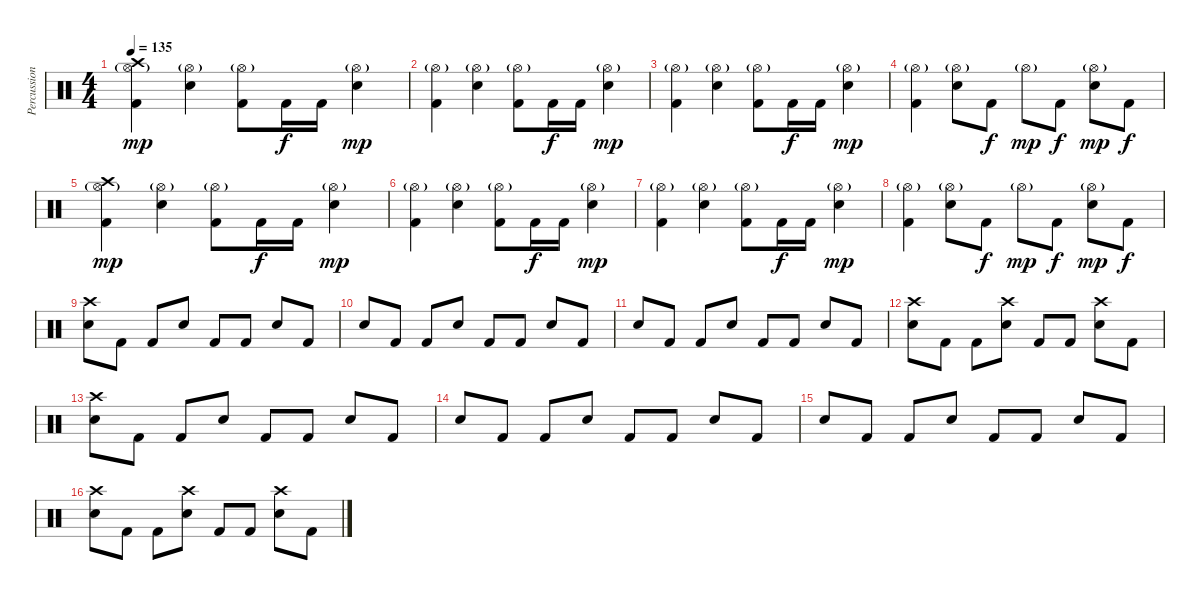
\track ("Percussion" "Percussion") {instrument percussion}
\staff {score}
\articulation defaults
\ts (4 4)
\tempo 135
\clef neutral
\ks c
("Hi-Hat (open)"{g} "Crash high (hit)" "Kick (hit) 2").4{dy mp} ("Hi-Hat (open)"{g} "Snare (hit) 2").4 ("Hi-Hat (open)"{g} "Kick (hit) 2").8 "Kick (hit) 2".16{dy f} "Kick (hit) 2".16 ("Hi-Hat (open)"{g} "Snare (hit) 2").4{dy mp} |
("Hi-Hat (open)"{g} "Kick (hit) 2").4 ("Hi-Hat (open)"{g} "Snare (hit) 2").4 ("Hi-Hat (open)"{g} "Kick (hit) 2").8 "Kick (hit) 2".16{dy f} "Kick (hit) 2".16 ("Hi-Hat (open)"{g} "Snare (hit) 2").4{dy mp} |
("Hi-Hat (open)"{g} "Kick (hit) 2").4 ("Hi-Hat (open)"{g} "Snare (hit) 2").4 ("Hi-Hat (open)"{g} "Kick (hit) 2").8 "Kick (hit) 2".16{dy f} "Kick (hit) 2".16 ("Hi-Hat (open)"{g} "Snare (hit) 2").4{dy mp} |
("Hi-Hat (open)"{g} "Kick (hit) 2").4 ("Hi-Hat (open)"{g} "Snare (hit) 2").8 "Kick (hit) 2".8{dy f} "Hi-Hat (open)"{g}.8{dy mp} "Kick (hit) 2".8{dy f} ("Hi-Hat (open)"{g} "Snare (hit) 2").8{dy mp} "Kick (hit) 2".8{dy f} |
("Hi-Hat (open)"{g} "Crash high (hit)" "Kick (hit) 2").4{dy mp} ("Hi-Hat (open)"{g} "Snare (hit) 2").4 ("Hi-Hat (open)"{g} "Kick (hit) 2").8 "Kick (hit) 2".16{dy f} "Kick (hit) 2".16 ("Hi-Hat (open)"{g} "Snare (hit) 2").4{dy mp} |
("Hi-Hat (open)"{g} "Kick (hit) 2").4 ("Hi-Hat (open)"{g} "Snare (hit) 2").4 ("Hi-Hat (open)"{g} "Kick (hit) 2").8 "Kick (hit) 2".16{dy f} "Kick (hit) 2".16 ("Hi-Hat (open)"{g} "Snare (hit) 2").4{dy mp} |
("Hi-Hat (open)"{g} "Kick (hit) 2").4 ("Hi-Hat (open)"{g} "Snare (hit) 2").4 ("Hi-Hat (open)"{g} "Kick (hit) 2").8 "Kick (hit) 2".16{dy f} "Kick (hit) 2".16 ("Hi-Hat (open)"{g} "Snare (hit) 2").4{dy mp} |
("Hi-Hat (open)"{g} "Kick (hit) 2").4 ("Hi-Hat (open)"{g} "Snare (hit) 2").8 "Kick (hit) 2".8{dy f} "Hi-Hat (open)"{g}.8{dy mp} "Kick (hit) 2".8{dy f} ("Hi-Hat (open)"{g} "Snare (hit) 2").8{dy mp} "Kick (hit) 2".8{dy f} |
("Crash high (hit)" "Snare (hit) 2").8 "Kick (hit) 2".8 "Kick (hit) 2".8 "Snare (hit) 2".8 "Kick (hit) 2".8 "Kick (hit) 2".8 "Snare (hit) 2".8 "Kick (hit) 2".8 |
"Snare (hit) 2".8 "Kick (hit) 2".8 "Kick (hit) 2".8 "Snare (hit) 2".8 "Kick (hit) 2".8 "Kick (hit) 2".8 "Snare (hit) 2".8 "Kick (hit) 2".8 |
"Snare (hit) 2".8 "Kick (hit) 2".8 "Kick (hit) 2".8 "Snare (hit) 2".8 "Kick (hit) 2".8 "Kick (hit) 2".8 "Snare (hit) 2".8 "Kick (hit) 2".8 |
("Crash high (hit)" "Snare (hit) 2").8 "Kick (hit) 2".8 "Kick (hit) 2".8 ("Crash high (hit)" "Snare (hit) 2").8 "Kick (hit) 2".8 "Kick (hit) 2".8 ("Crash high (hit)" "Snare (hit) 2").8 "Kick (hit) 2".8 |
("Crash high (hit)" "Snare (hit) 2").8 "Kick (hit) 2".8 "Kick (hit) 2".8 "Snare (hit) 2".8 "Kick (hit) 2".8 "Kick (hit) 2".8 "Snare (hit) 2".8 "Kick (hit) 2".8 |
"Snare (hit) 2".8 "Kick (hit) 2".8 "Kick (hit) 2".8 "Snare (hit) 2".8 "Kick (hit) 2".8 "Kick (hit) 2".8 "Snare (hit) 2".8 "Kick (hit) 2".8 |
"Snare (hit) 2".8 "Kick (hit) 2".8 "Kick (hit) 2".8 "Snare (hit) 2".8 "Kick (hit) 2".8 "Kick (hit) 2".8 "Snare (hit) 2".8 "Kick (hit) 2".8 |
("Crash high (hit)" "Snare (hit) 2").8 "Kick (hit) 2".8 "Kick (hit) 2".8 ("Crash high (hit)" "Snare (hit) 2").8 "Kick (hit) 2".8 "Kick (hit) 2".8 ("Crash high (hit)" "Snare (hit) 2").8 "Kick (hit) 2".8
